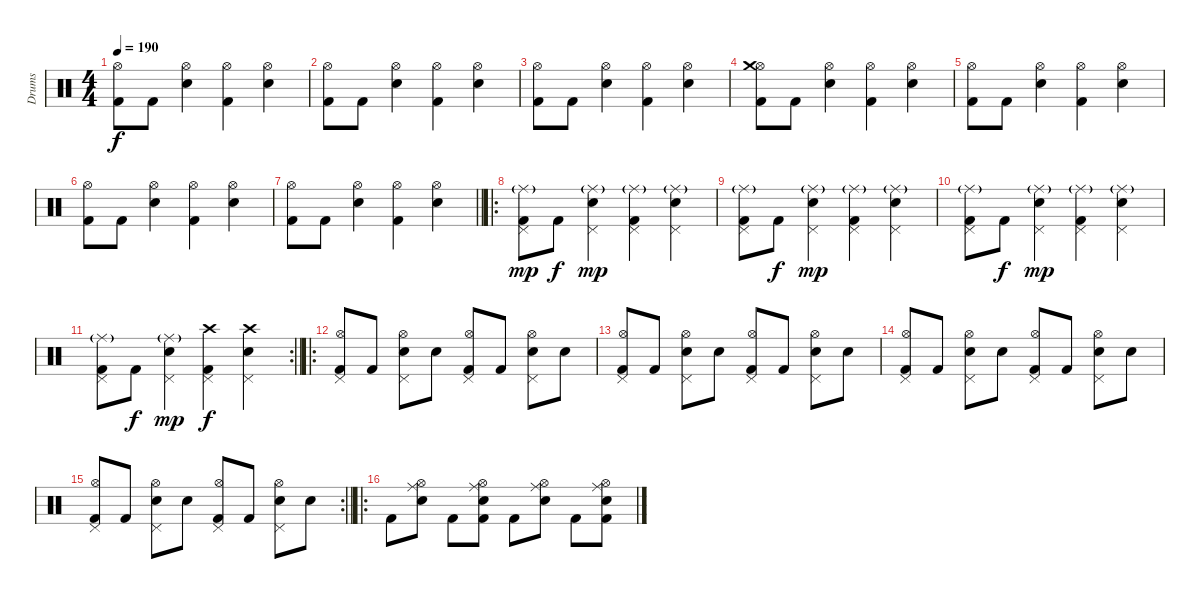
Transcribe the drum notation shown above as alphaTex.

\track ("Drums" "Drums") {instrument percussion}
\staff {score}
\articulation defaults
\ts (4 4)
\tempo 190
\clef neutral
\ks c
("Kick (hit) 2" "Hi-Hat (open)").8{dy f} "Kick (hit) 2".8 ("Snare (hit) 2" "Hi-Hat (open)").4 ("Kick (hit) 2" "Hi-Hat (open)").4 ("Snare (hit) 2" "Hi-Hat (open)").4 |
("Kick (hit) 2" "Hi-Hat (open)").8 "Kick (hit) 2".8 ("Snare (hit) 2" "Hi-Hat (open)").4 ("Kick (hit) 2" "Hi-Hat (open)").4 ("Snare (hit) 2" "Hi-Hat (open)").4 |
("Kick (hit) 2" "Hi-Hat (open)").8 "Kick (hit) 2".8 ("Snare (hit) 2" "Hi-Hat (open)").4 ("Kick (hit) 2" "Hi-Hat (open)").4 ("Snare (hit) 2" "Hi-Hat (open)").4 |
("Kick (hit) 2" "Hi-Hat (open)" "Crash medium (hit)").8 "Kick (hit) 2".8 ("Snare (hit) 2" "Hi-Hat (open)").4 ("Kick (hit) 2" "Hi-Hat (open)").4 ("Snare (hit) 2" "Hi-Hat (open)").4 |
("Kick (hit) 2" "Hi-Hat (open)").8 "Kick (hit) 2".8 ("Snare (hit) 2" "Hi-Hat (open)").4 ("Kick (hit) 2" "Hi-Hat (open)").4 ("Snare (hit) 2" "Hi-Hat (open)").4 |
("Kick (hit) 2" "Hi-Hat (open)").8 "Kick (hit) 2".8 ("Snare (hit) 2" "Hi-Hat (open)").4 ("Kick (hit) 2" "Hi-Hat (open)").4 ("Snare (hit) 2" "Hi-Hat (open)").4 |
\barLineRight lightlight
("Kick (hit) 2" "Hi-Hat (open)").8 "Kick (hit) 2".8 ("Snare (hit) 2" "Hi-Hat (open)").4 ("Kick (hit) 2" "Hi-Hat (open)").4 ("Snare (hit) 2" "Hi-Hat (open)").4 |
\ro
\section ("" "")
("Kick (hit) 2" "Pedal Hi-Hat (hit)" "Ride (middle)"{g}).8{dy mp} "Kick (hit) 2".8{dy f} ("Snare (hit) 2" "Pedal Hi-Hat (hit)" "Ride (middle)"{g}).4{dy mp} ("Kick (hit) 2" "Pedal Hi-Hat (hit)" "Ride (middle)"{g}).4 ("Snare (hit) 2" "Pedal Hi-Hat (hit)" "Ride (middle)"{g}).4 |
("Kick (hit) 2" "Pedal Hi-Hat (hit)" "Ride (middle)"{g}).8 "Kick (hit) 2".8{dy f} ("Snare (hit) 2" "Pedal Hi-Hat (hit)" "Ride (middle)"{g}).4{dy mp} ("Kick (hit) 2" "Pedal Hi-Hat (hit)" "Ride (middle)"{g}).4 ("Snare (hit) 2" "Pedal Hi-Hat (hit)" "Ride (middle)"{g}).4 |
("Kick (hit) 2" "Pedal Hi-Hat (hit)" "Ride (middle)"{g}).8 "Kick (hit) 2".8{dy f} ("Snare (hit) 2" "Pedal Hi-Hat (hit)" "Ride (middle)"{g}).4{dy mp} ("Kick (hit) 2" "Pedal Hi-Hat (hit)" "Ride (middle)"{g}).4 ("Snare (hit) 2" "Pedal Hi-Hat (hit)" "Ride (middle)"{g}).4 |
\rc 2
\barLineRight lightlight
("Kick (hit) 2" "Pedal Hi-Hat (hit)" "Ride (middle)"{g}).8 "Kick (hit) 2".8{dy f} ("Snare (hit) 2" "Pedal Hi-Hat (hit)" "Ride (middle)"{g}).4{dy mp} ("Kick (hit) 2" "Pedal Hi-Hat (hit)" "Crash high (hit)").4{dy f} ("Snare (hit) 2" "Pedal Hi-Hat (hit)" "Crash high (hit)").4 |
\ro
\section ("" "")
("Kick (hit) 2" "Hi-Hat (open)" "Pedal Hi-Hat (hit)").8 "Kick (hit) 2".8 ("Snare (hit) 2" "Hi-Hat (open)" "Pedal Hi-Hat (hit)").8 "Snare (hit) 2".8 ("Kick (hit) 2" "Hi-Hat (open)" "Pedal Hi-Hat (hit)").8 "Kick (hit) 2".8 ("Snare (hit) 2" "Hi-Hat (open)" "Pedal Hi-Hat (hit)").8 "Snare (hit) 2".8 |
("Kick (hit) 2" "Hi-Hat (open)" "Pedal Hi-Hat (hit)").8 "Kick (hit) 2".8 ("Snare (hit) 2" "Hi-Hat (open)" "Pedal Hi-Hat (hit)").8 "Snare (hit) 2".8 ("Kick (hit) 2" "Hi-Hat (open)" "Pedal Hi-Hat (hit)").8 "Kick (hit) 2".8 ("Snare (hit) 2" "Hi-Hat (open)" "Pedal Hi-Hat (hit)").8 "Snare (hit) 2".8 |
("Kick (hit) 2" "Hi-Hat (open)" "Pedal Hi-Hat (hit)").8 "Kick (hit) 2".8 ("Snare (hit) 2" "Hi-Hat (open)" "Pedal Hi-Hat (hit)").8 "Snare (hit) 2".8 ("Kick (hit) 2" "Hi-Hat (open)" "Pedal Hi-Hat (hit)").8 "Kick (hit) 2".8 ("Snare (hit) 2" "Hi-Hat (open)" "Pedal Hi-Hat (hit)").8 "Snare (hit) 2".8 |
\rc 2
\barLineRight lightlight
("Kick (hit) 2" "Hi-Hat (open)" "Pedal Hi-Hat (hit)").8 "Kick (hit) 2".8 ("Snare (hit) 2" "Hi-Hat (open)" "Pedal Hi-Hat (hit)").8 "Snare (hit) 2".8 ("Kick (hit) 2" "Hi-Hat (open)" "Pedal Hi-Hat (hit)").8 "Kick (hit) 2".8 ("Snare (hit) 2" "Hi-Hat (open)" "Pedal Hi-Hat (hit)").8 "Snare (hit) 2".8 |
\ro
\section ("" "")
"Kick (hit) 2".8 ("Snare (hit) 2" "Hi-Hat (open)" "Ride (middle)").8 "Kick (hit) 2".8 ("Kick (hit) 2" "Snare (hit) 2" "Hi-Hat (open)" "Ride (middle)").8 "Kick (hit) 2".8 ("Snare (hit) 2" "Hi-Hat (open)" "Ride (middle)").8 "Kick (hit) 2".8 ("Kick (hit) 2" "Snare (hit) 2" "Hi-Hat (open)" "Ride (middle)").8
